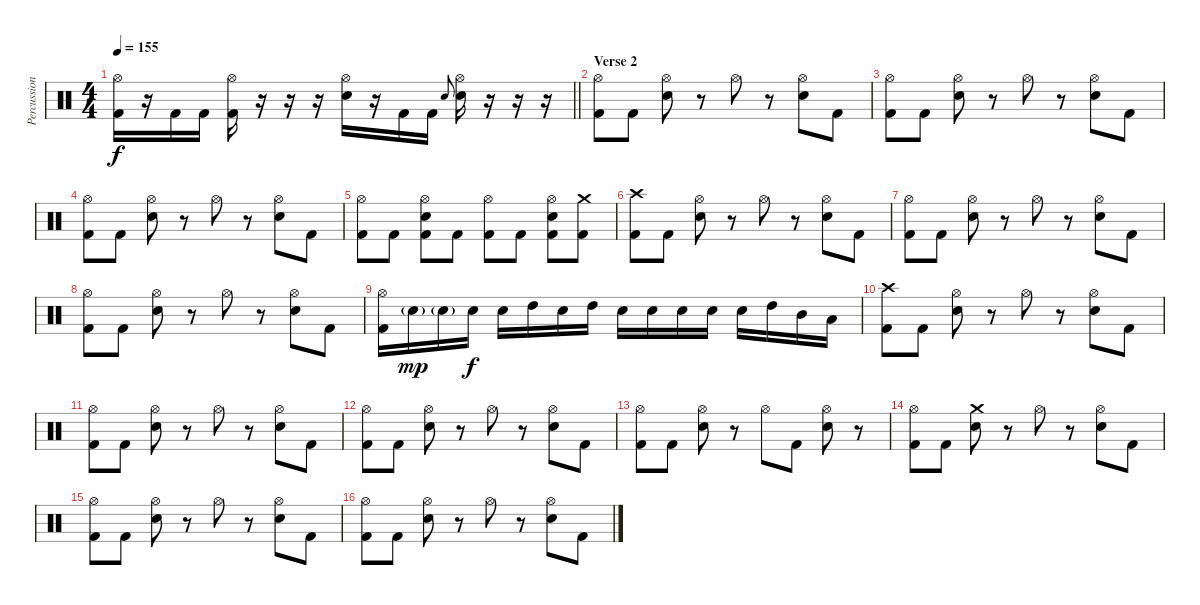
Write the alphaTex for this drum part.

\track ("Percussion" "Percussion") {instrument percussion}
\staff {score}
\articulation defaults
\ts (4 4)
\tempo 155
\clef neutral
\barLineRight lightlight
\ks c
("Hi-Hat (open)" "Kick (hit) 2").16{dy f} r.16 "Kick (hit) 2".16 "Kick (hit) 2".16 ("Hi-Hat (open)" "Kick (hit) 2").16 r.16 r.16 r.16 ("Hi-Hat (open)" "Snare (hit) 2").16 r.16 "Kick (hit) 2".16 "Kick (hit) 2".16 "Snare (hit) 2"{h}.8{gr onbeat} ("Hi-Hat (open)" "Snare (hit) 2").16 r.16 r.16 r.16 |
\section ("" "Verse 2")
("Hi-Hat (open)" "Kick (hit) 2").8 "Kick (hit) 2".8 ("Hi-Hat (open)" "Snare (hit) 2").8 r.8 "Hi-Hat (open)".8 r.8 ("Hi-Hat (open)" "Snare (hit) 2").8 "Kick (hit) 2".8 |
("Hi-Hat (open)" "Kick (hit) 2").8 "Kick (hit) 2".8 ("Hi-Hat (open)" "Snare (hit) 2").8 r.8 "Hi-Hat (open)".8 r.8 ("Hi-Hat (open)" "Snare (hit) 2").8 "Kick (hit) 2".8 |
("Hi-Hat (open)" "Kick (hit) 2").8 "Kick (hit) 2".8 ("Hi-Hat (open)" "Snare (hit) 2").8 r.8 "Hi-Hat (open)".8 r.8 ("Hi-Hat (open)" "Snare (hit) 2").8 "Kick (hit) 2".8 |
("Hi-Hat (open)" "Kick (hit) 2").8 "Kick (hit) 2".8 ("Hi-Hat (open)" "Snare (hit) 2" "Kick (hit) 2").8 "Kick (hit) 2".8 ("Hi-Hat (open)" "Kick (hit) 2").8 "Kick (hit) 2".8 ("Hi-Hat (open)" "Snare (hit) 2" "Kick (hit) 2").8 ("Crash medium (hit)" "Kick (hit) 2").8 |
("Crash high (hit)" "Kick (hit) 2").8 "Kick (hit) 2".8 ("Hi-Hat (open)" "Snare (hit) 2").8 r.8 "Hi-Hat (open)".8 r.8 ("Hi-Hat (open)" "Snare (hit) 2").8 "Kick (hit) 2".8 |
("Hi-Hat (open)" "Kick (hit) 2").8 "Kick (hit) 2".8 ("Hi-Hat (open)" "Snare (hit) 2").8 r.8 "Hi-Hat (open)".8 r.8 ("Hi-Hat (open)" "Snare (hit) 2").8 "Kick (hit) 2".8 |
("Hi-Hat (open)" "Kick (hit) 2").8 "Kick (hit) 2".8 ("Hi-Hat (open)" "Snare (hit) 2").8 r.8 "Hi-Hat (open)".8 r.8 ("Hi-Hat (open)" "Snare (hit) 2").8 "Kick (hit) 2".8 |
("Hi-Hat (open)" "Kick (hit) 2").16 "Snare (hit) 2"{g}.16{dy mp} "Snare (hit) 2"{g}.16 "Snare (hit) 2".16{dy f} "Snare (hit) 2".16 "High Tom (hit)".16 "Snare (hit) 2".16 "High Tom (hit)".16 "Snare (hit) 2".16 "Snare (hit) 2".16 "Snare (hit) 2".16 "Snare (hit) 2".16 "Snare (hit) 2".16 "High Tom (hit)".16 "Mid Tom (hit)".16 "Low Tom (hit)".16 |
("Crash high (hit)" "Kick (hit) 2").8 "Kick (hit) 2".8 ("Hi-Hat (open)" "Snare (hit) 2").8 r.8 "Hi-Hat (open)".8 r.8 ("Hi-Hat (open)" "Snare (hit) 2").8 "Kick (hit) 2".8 |
("Hi-Hat (open)" "Kick (hit) 2").8 "Kick (hit) 2".8 ("Hi-Hat (open)" "Snare (hit) 2").8 r.8 "Hi-Hat (open)".8 r.8 ("Hi-Hat (open)" "Snare (hit) 2").8 "Kick (hit) 2".8 |
("Hi-Hat (open)" "Kick (hit) 2").8 "Kick (hit) 2".8 ("Hi-Hat (open)" "Snare (hit) 2").8 r.8 "Hi-Hat (open)".8 r.8 ("Hi-Hat (open)" "Snare (hit) 2").8 "Kick (hit) 2".8 |
("Hi-Hat (open)" "Kick (hit) 2").8 "Kick (hit) 2".8 ("Hi-Hat (open)" "Snare (hit) 2").8 r.8 "Hi-Hat (open)".8 "Kick (hit) 2".8 ("Hi-Hat (open)" "Snare (hit) 2").8 r.8 |
("Hi-Hat (open)" "Kick (hit) 2").8 "Kick (hit) 2".8 ("Crash medium (hit)" "Snare (hit) 2").8 r.8 "Hi-Hat (open)".8 r.8 ("Hi-Hat (open)" "Snare (hit) 2").8 "Kick (hit) 2".8 |
("Hi-Hat (open)" "Kick (hit) 2").8 "Kick (hit) 2".8 ("Hi-Hat (open)" "Snare (hit) 2").8 r.8 "Hi-Hat (open)".8 r.8 ("Hi-Hat (open)" "Snare (hit) 2").8 "Kick (hit) 2".8 |
("Hi-Hat (open)" "Kick (hit) 2").8 "Kick (hit) 2".8 ("Hi-Hat (open)" "Snare (hit) 2").8 r.8 "Hi-Hat (open)".8 r.8 ("Hi-Hat (open)" "Snare (hit) 2").8 "Kick (hit) 2".8
